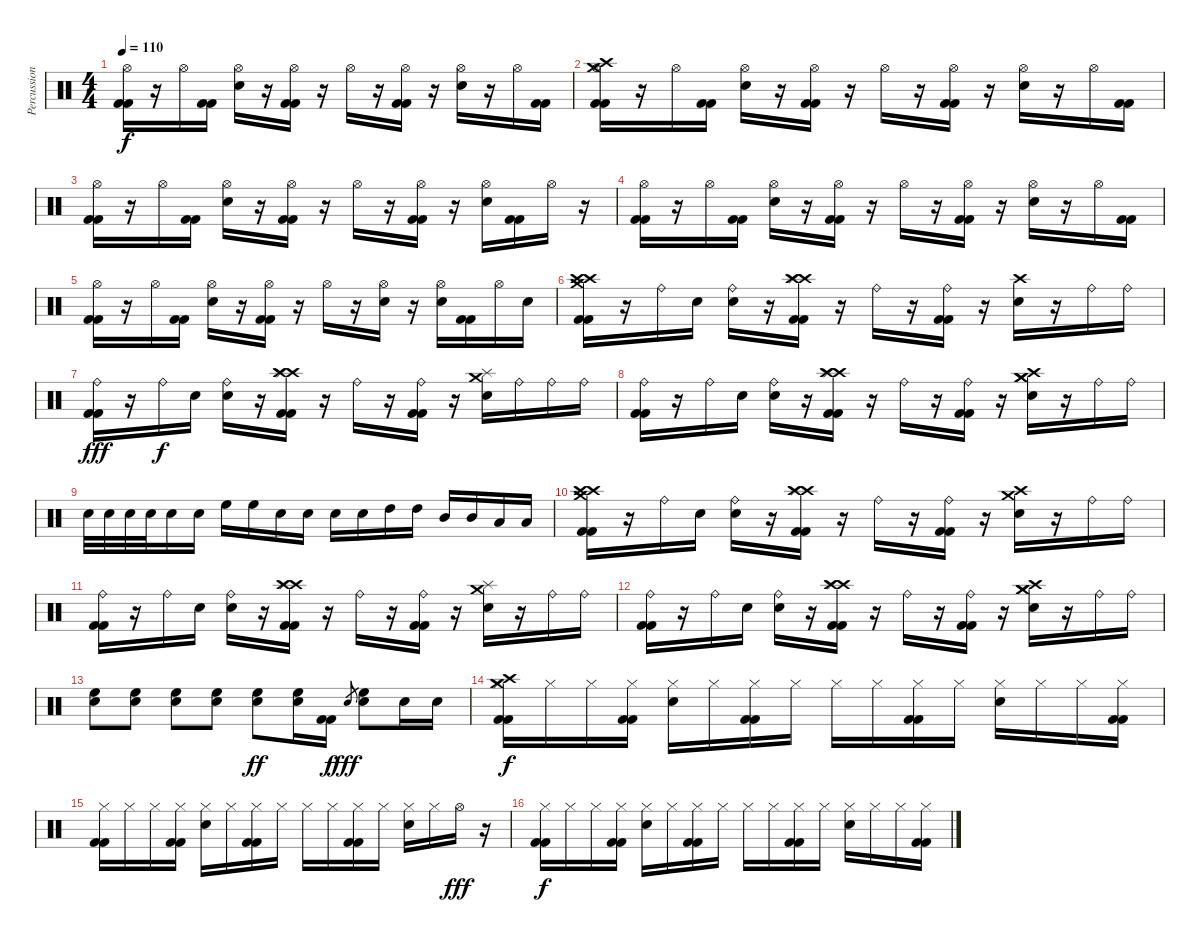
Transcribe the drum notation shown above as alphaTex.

\track ("Percussion" "Percussion") {instrument percussion}
\staff {score}
\articulation defaults
\ts (4 4)
\tempo 110
\clef neutral
\ks c
("Hi-Hat (open)" "Kick (hit) 2" "Kick (hit) 2").16{dy f} r.16 "Hi-Hat (open)".16 ("Kick (hit) 2" "Kick (hit) 2").16 ("Hi-Hat (open)" "Electric Snare (hit)").16 r.16 ("Hi-Hat (open)" "Kick (hit) 2" "Kick (hit) 2").16 r.16 "Hi-Hat (open)".16 r.16 ("Hi-Hat (open)" "Kick (hit) 2" "Kick (hit) 2").16 r.16 ("Hi-Hat (open)" "Electric Snare (hit)").16 r.16 "Hi-Hat (open)".16 ("Kick (hit) 2" "Kick (hit) 2").16 |
("Hi-Hat (open)" "Crash high (hit)" "Crash medium (hit)" "Kick (hit) 2" "Kick (hit) 2").16 r.16 "Hi-Hat (open)".16 ("Kick (hit) 2" "Kick (hit) 2").16 ("Hi-Hat (open)" "Electric Snare (hit)").16 r.16 ("Hi-Hat (open)" "Kick (hit) 2" "Kick (hit) 2").16 r.16 "Hi-Hat (open)".16 r.16 ("Hi-Hat (open)" "Kick (hit) 2" "Kick (hit) 2").16 r.16 ("Hi-Hat (open)" "Electric Snare (hit)").16 r.16 "Hi-Hat (open)".16 ("Kick (hit) 2" "Kick (hit) 2").16 |
("Hi-Hat (open)" "Kick (hit) 2" "Kick (hit) 2").16 r.16 "Hi-Hat (open)".16 ("Kick (hit) 2" "Kick (hit) 2").16 ("Hi-Hat (open)" "Electric Snare (hit)").16 r.16 ("Hi-Hat (open)" "Kick (hit) 2" "Kick (hit) 2").16 r.16 "Hi-Hat (open)".16 r.16 ("Hi-Hat (open)" "Kick (hit) 2" "Kick (hit) 2").16 r.16 ("Hi-Hat (open)" "Electric Snare (hit)").16 ("Kick (hit) 2" "Kick (hit) 2").16 "Hi-Hat (open)".16 r.16 |
("Hi-Hat (open)" "Kick (hit) 2" "Kick (hit) 2").16 r.16 "Hi-Hat (open)".16 ("Kick (hit) 2" "Kick (hit) 2").16 ("Hi-Hat (open)" "Electric Snare (hit)").16 r.16 ("Hi-Hat (open)" "Kick (hit) 2" "Kick (hit) 2").16 r.16 "Hi-Hat (open)".16 r.16 ("Hi-Hat (open)" "Kick (hit) 2" "Kick (hit) 2").16 r.16 ("Hi-Hat (open)" "Electric Snare (hit)").16 r.16 "Hi-Hat (open)".16 ("Kick (hit) 2" "Kick (hit) 2").16 |
("Hi-Hat (open)" "Kick (hit) 2" "Kick (hit) 2").16 r.16 "Hi-Hat (open)".16 ("Kick (hit) 2" "Kick (hit) 2").16 ("Hi-Hat (open)" "Electric Snare (hit)").16 r.16 ("Hi-Hat (open)" "Kick (hit) 2" "Kick (hit) 2").16 r.16 "Hi-Hat (open)".16 r.16 ("Hi-Hat (open)" "Electric Snare (hit)").16 r.16 ("Hi-Hat (open)" "Electric Snare (hit)").16 ("Kick (hit) 2" "Kick (hit) 2").16 "Hi-Hat (open)".16 "Electric Snare (hit)".16 |
("Crash high (hit)" "Crash high (hit)" "Crash medium (hit)" "Kick (hit) 2" "Kick (hit) 2").16 r.16 "Ride (bell)".16 "Electric Snare (hit)".16 ("Ride (bell)" "Electric Snare (hit)").16 r.16 ("Crash high (hit)" "Crash high (hit)" "Splash (hit)" "Kick (hit) 2" "Kick (hit) 2").16 r.16 "Ride (bell)".16 r.16 ("Ride (bell)" "Kick (hit) 2" "Kick (hit) 2").16 r.16 ("Crash high (hit)" "Electric Snare (hit)").16 r.16 "Ride (bell)".16 "Ride (bell)".16 |
("Ride (bell)" "Kick (hit) 2" "Kick (hit) 2").16{dy fff} r.16 "Ride (bell)".16{dy f} "Electric Snare (hit)".16 ("Ride (bell)" "Electric Snare (hit)").16 r.16 ("Crash high (hit)" "Crash high (hit)" "Splash (hit)" "Kick (hit) 2" "Kick (hit) 2").16 r.16 "Ride (bell)".16 r.16 ("Ride (bell)" "Kick (hit) 2" "Kick (hit) 2").16 r.16 ("Crash medium (hit)" "Splash (hit)" "Electric Snare (hit)").16 "Ride (bell)".16 "Ride (bell)".16 "Ride (bell)".16 |
("Ride (bell)" "Kick (hit) 2" "Kick (hit) 2").16 r.16 "Ride (bell)".16 "Electric Snare (hit)".16 ("Ride (bell)" "Electric Snare (hit)").16 r.16 ("Crash high (hit)" "Crash high (hit)" "Splash (hit)" "Kick (hit) 2" "Kick (hit) 2").16 r.16 "Ride (bell)".16 r.16 ("Ride (bell)" "Kick (hit) 2" "Kick (hit) 2").16 r.16 ("Crash high (hit)" "Crash medium (hit)" "Crash medium (hit)" "Electric Snare (hit)").16 r.16 "Ride (bell)".16 "Ride (bell)".16 |
"Electric Snare (hit)".32 "Electric Snare (hit)".32 "Electric Snare (hit)".32 "Electric Snare (hit)".32 "Electric Snare (hit)".16 "Electric Snare (hit)".16 "High Floor Tom (hit)".16 "High Floor Tom (hit)".16 "Electric Snare (hit)".16 "Electric Snare (hit)".16 "Electric Snare (hit)".16 "Electric Snare (hit)".16 "High Tom (hit)".16 "High Tom (hit)".16 "Mid Tom (hit)".16 "Mid Tom (hit)".16 "Low Tom (hit)".16 "Low Tom (hit)".16 |
("Crash high (hit)" "Crash high (hit)" "Crash medium (hit)" "Kick (hit) 2" "Kick (hit) 2").16 r.16 "Ride (bell)".16 "Electric Snare (hit)".16 ("Ride (bell)" "Electric Snare (hit)").16 r.16 ("Crash high (hit)" "Crash high (hit)" "Splash (hit)" "Kick (hit) 2" "Kick (hit) 2").16 r.16 "Ride (bell)".16 r.16 ("Ride (bell)" "Kick (hit) 2" "Kick (hit) 2").16 r.16 ("Crash high (hit)" "Crash medium (hit)" "Electric Snare (hit)").16 r.16 "Ride (bell)".16 "Ride (bell)".16 |
("Ride (bell)" "Kick (hit) 2" "Kick (hit) 2").16 r.16 "Ride (bell)".16 "Electric Snare (hit)".16 ("Ride (bell)" "Electric Snare (hit)").16 r.16 ("Crash high (hit)" "Crash high (hit)" "Splash (hit)" "Kick (hit) 2" "Kick (hit) 2").16 r.16 "Ride (bell)".16 r.16 ("Ride (bell)" "Kick (hit) 2" "Kick (hit) 2").16 r.16 ("Crash medium (hit)" "Splash (hit)" "Electric Snare (hit)").16 r.16 "Ride (bell)".16 "Ride (bell)".16 |
("Ride (bell)" "Kick (hit) 2" "Kick (hit) 2").16 r.16 "Ride (bell)".16 "Electric Snare (hit)".16 ("Ride (bell)" "Electric Snare (hit)").16 r.16 ("Crash high (hit)" "Crash high (hit)" "Splash (hit)" "Kick (hit) 2" "Kick (hit) 2").16 r.16 "Ride (bell)".16 r.16 ("Ride (bell)" "Kick (hit) 2" "Kick (hit) 2").16 r.16 ("Crash high (hit)" "Crash medium (hit)" "Crash medium (hit)" "Electric Snare (hit)").16 r.16 "Ride (bell)".16 "Ride (bell)".16 |
("High Floor Tom (hit)" "Electric Snare (hit)").8 ("High Floor Tom (hit)" "Electric Snare (hit)").8 ("High Floor Tom (hit)" "Electric Snare (hit)").8 ("High Floor Tom (hit)" "Electric Snare (hit)").8 ("High Floor Tom (hit)" "Electric Snare (hit)").8{dy ff} ("High Floor Tom (hit)" "Electric Snare (hit)").16 ("Kick (hit) 2" "Kick (hit) 2").16{dy f} "Electric Snare (hit)".8{gr dy fff} ("High Floor Tom (hit)" "Electric Snare (hit)").8 "Electric Snare (hit)".16 "Electric Snare (hit)".16 |
("Hi-Hat (closed)" "Crash high (hit)" "Crash medium (hit)" "Kick (hit) 2" "Kick (hit) 2").16{dy f} "Hi-Hat (closed)".16 "Hi-Hat (closed)".16 ("Hi-Hat (closed)" "Kick (hit) 2" "Kick (hit) 2").16 ("Hi-Hat (closed)" "Electric Snare (hit)").16 "Hi-Hat (closed)".16 ("Hi-Hat (closed)" "Kick (hit) 2" "Kick (hit) 2").16 "Hi-Hat (closed)".16 "Hi-Hat (closed)".16 "Hi-Hat (closed)".16 ("Hi-Hat (closed)" "Kick (hit) 2" "Kick (hit) 2").16 "Hi-Hat (closed)".16 ("Hi-Hat (closed)" "Electric Snare (hit)").16 "Hi-Hat (closed)".16 "Hi-Hat (closed)".16 ("Hi-Hat (closed)" "Kick (hit) 2" "Kick (hit) 2").16 |
("Hi-Hat (closed)" "Kick (hit) 2" "Kick (hit) 2").16 "Hi-Hat (closed)".16 "Hi-Hat (closed)".16 ("Hi-Hat (closed)" "Kick (hit) 2" "Kick (hit) 2").16 ("Hi-Hat (closed)" "Electric Snare (hit)").16 "Hi-Hat (closed)".16 ("Hi-Hat (closed)" "Kick (hit) 2" "Kick (hit) 2").16 "Hi-Hat (closed)".16 "Hi-Hat (closed)".16 "Hi-Hat (closed)".16 ("Hi-Hat (closed)" "Kick (hit) 2" "Kick (hit) 2").16 "Hi-Hat (closed)".16 ("Hi-Hat (closed)" "Electric Snare (hit)").16 "Hi-Hat (closed)".16 "Hi-Hat (open)".16{dy fff} r.16 |
("Hi-Hat (closed)" "Kick (hit) 2" "Kick (hit) 2").16{dy f} "Hi-Hat (closed)".16 "Hi-Hat (closed)".16 ("Hi-Hat (closed)" "Kick (hit) 2" "Kick (hit) 2").16 ("Hi-Hat (closed)" "Electric Snare (hit)").16 "Hi-Hat (closed)".16 ("Hi-Hat (closed)" "Kick (hit) 2" "Kick (hit) 2").16 "Hi-Hat (closed)".16 "Hi-Hat (closed)".16 "Hi-Hat (closed)".16 ("Hi-Hat (closed)" "Kick (hit) 2" "Kick (hit) 2").16 "Hi-Hat (closed)".16 ("Hi-Hat (closed)" "Electric Snare (hit)").16 "Hi-Hat (closed)".16 "Hi-Hat (closed)".16 ("Hi-Hat (closed)" "Kick (hit) 2" "Kick (hit) 2").16
